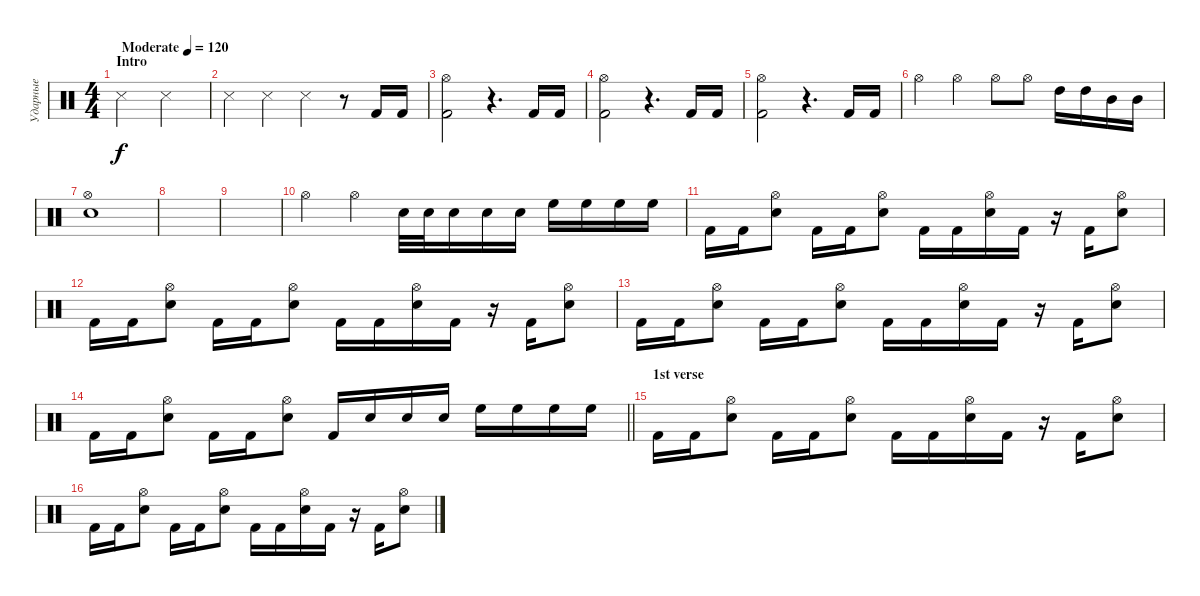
\track ("Ударные" "Ударные") {instrument percussion}
\staff {score}
\articulation defaults
\ts (4 4)
\section ("" "Intro")
\tempo (120 "Moderate")
\clef neutral
\ks c "Snare (side stick) 3".2{dy f} "Snare (side stick) 3".2
|
"Snare (side stick) 3".4 "Snare (side stick) 3".4 "Snare (side stick) 3".4 r.8 "Kick (hit) 2".16 "Kick (hit) 2".16 |
("Kick (hit) 2" "Hi-Hat (open)").2 r.4{d} "Kick (hit) 2".16 "Kick (hit) 2".16 |
("Kick (hit) 2" "Hi-Hat (open)").2 r.4{d} "Kick (hit) 2".16 "Kick (hit) 2".16 |
("Kick (hit) 2" "Hi-Hat (open)").2 r.4{d} "Kick (hit) 2".16 "Kick (hit) 2".16 |
"Hi-Hat (open)".4 "Hi-Hat (open)".4 "Hi-Hat (open)".8 "Hi-Hat (open)".8 "High Tom (hit)".16 "High Tom (hit)".16 "Mid Tom (hit)".16 "Mid Tom (hit)".16 |
("Snare (hit) 2" "Hi-Hat (open)").1 |
|
|
"Hi-Hat (open)".4 "Hi-Hat (open)".4 "Electric Snare (hit)".32 "Electric Snare (hit)".32 "Electric Snare (hit)".16 "Electric Snare (hit)".16 "Electric Snare (hit)".16 "High Floor Tom (hit)".16 "High Floor Tom (hit)".16 "High Floor Tom (hit)".16 "High Floor Tom (hit)".16 |
"Kick (hit) 2".16 "Kick (hit) 2".16 ("Electric Snare (hit)" "Hi-Hat (open)").8 "Kick (hit) 2".16 "Kick (hit) 2".16 ("Electric Snare (hit)" "Hi-Hat (open)").8 "Kick (hit) 2".16 "Kick (hit) 2".16 ("Electric Snare (hit)" "Hi-Hat (open)").16 "Kick (hit) 2".16 r.16 "Kick (hit) 2".16 ("Electric Snare (hit)" "Hi-Hat (open)").8 |
"Kick (hit) 2".16 "Kick (hit) 2".16 ("Electric Snare (hit)" "Hi-Hat (open)").8 "Kick (hit) 2".16 "Kick (hit) 2".16 ("Electric Snare (hit)" "Hi-Hat (open)").8 "Kick (hit) 2".16 "Kick (hit) 2".16 ("Electric Snare (hit)" "Hi-Hat (open)").16 "Kick (hit) 2".16 r.16 "Kick (hit) 2".16 ("Electric Snare (hit)" "Hi-Hat (open)").8 |
"Kick (hit) 2".16 "Kick (hit) 2".16 ("Electric Snare (hit)" "Hi-Hat (open)").8 "Kick (hit) 2".16 "Kick (hit) 2".16 ("Electric Snare (hit)" "Hi-Hat (open)").8 "Kick (hit) 2".16 "Kick (hit) 2".16 ("Electric Snare (hit)" "Hi-Hat (open)").16 "Kick (hit) 2".16 r.16 "Kick (hit) 2".16 ("Electric Snare (hit)" "Hi-Hat (open)").8 |
\barLineRight lightlight "Kick (hit) 2".16 "Kick (hit) 2".16
("Electric Snare (hit)" "Hi-Hat (open)").8 "Kick (hit) 2".16 "Kick (hit) 2".16 ("Electric Snare (hit)" "Hi-Hat (open)").8 "Kick (hit) 2".16 "Electric Snare (hit)".16 "Electric Snare (hit)".16 "Electric Snare (hit)".16 "High Floor Tom (hit)".16 "High Floor Tom (hit)".16 "High Floor Tom (hit)".16 "High Floor Tom (hit)".16 |
\section ("" "1st verse")
"Kick (hit) 2".16 "Kick (hit) 2".16 ("Electric Snare (hit)" "Hi-Hat (open)").8 "Kick (hit) 2".16 "Kick (hit) 2".16 ("Electric Snare (hit)" "Hi-Hat (open)").8 "Kick (hit) 2".16 "Kick (hit) 2".16 ("Electric Snare (hit)" "Hi-Hat (open)").16 "Kick (hit) 2".16 r.16 "Kick (hit) 2".16 ("Electric Snare (hit)" "Hi-Hat (open)").8 |
"Kick (hit) 2".16 "Kick (hit) 2".16 ("Electric Snare (hit)" "Hi-Hat (open)").8 "Kick (hit) 2".16 "Kick (hit) 2".16 ("Electric Snare (hit)" "Hi-Hat (open)").8 "Kick (hit) 2".16 "Kick (hit) 2".16 ("Electric Snare (hit)" "Hi-Hat (open)").16 "Kick (hit) 2".16 r.16 "Kick (hit) 2".16 ("Electric Snare (hit)" "Hi-Hat (open)").8
